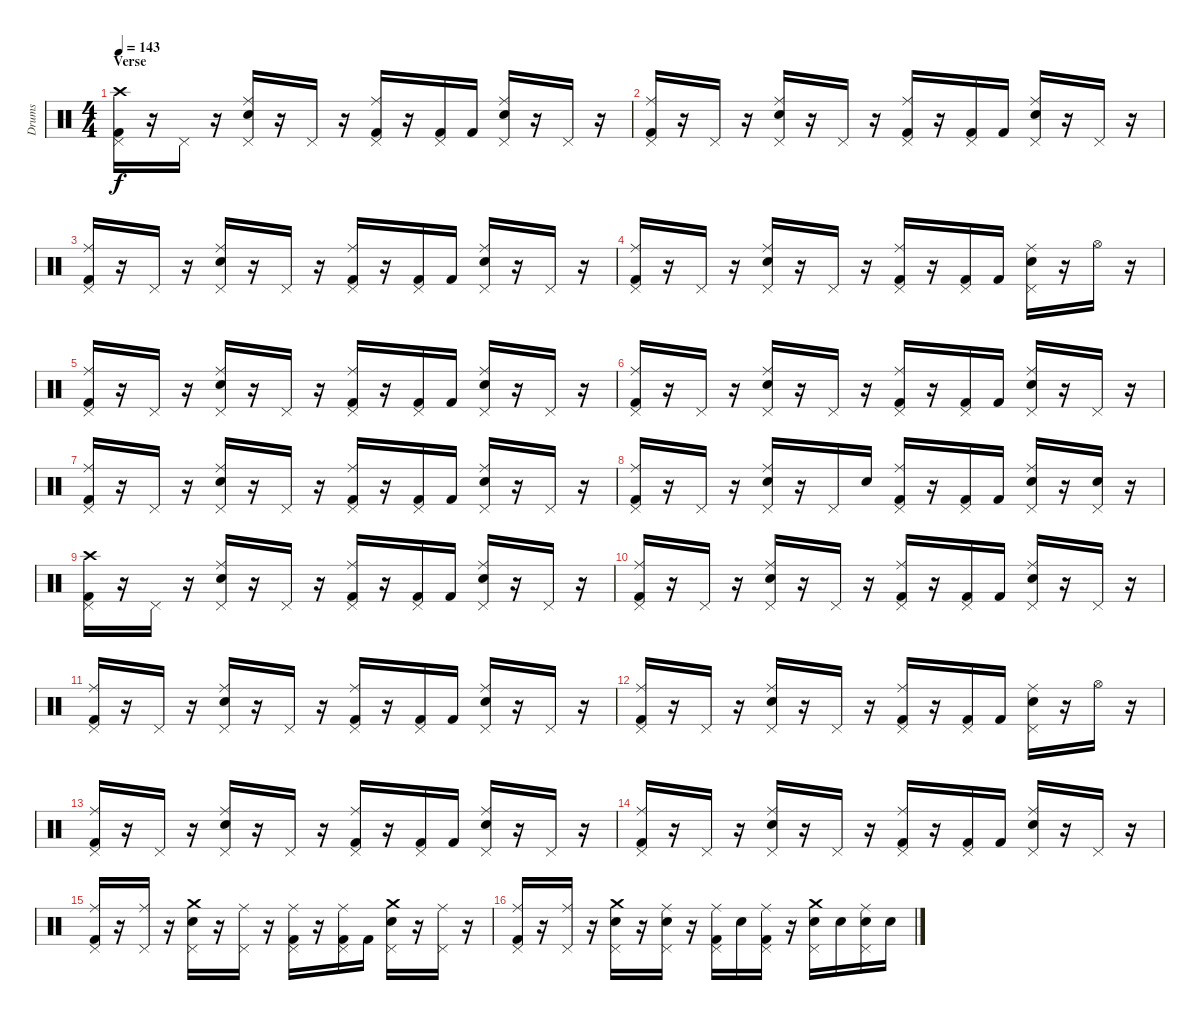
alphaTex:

\track ("Drums" "Drums") {instrument percussion}
\staff {score}
\articulation defaults
\ts (4 4)
\section ("" "Verse")
\tempo 143
\clef neutral
\ks c
("Crash high (hit)" "Kick (hit) 2" "Pedal Hi-Hat (hit)").16{dy f} r.16 "Pedal Hi-Hat (hit)".16 r.16 ("Ride (middle)" "Snare (hit) 2" "Pedal Hi-Hat (hit)").16 r.16 "Pedal Hi-Hat (hit)".16 r.16 ("Ride (middle)" "Kick (hit) 2" "Pedal Hi-Hat (hit)").16 r.16 ("Kick (hit) 2" "Pedal Hi-Hat (hit)").16 "Kick (hit) 2".16 ("Ride (middle)" "Snare (hit) 2" "Pedal Hi-Hat (hit)").16 r.16 "Pedal Hi-Hat (hit)".16 r.16 |
("Ride (middle)" "Kick (hit) 2" "Pedal Hi-Hat (hit)").16 r.16 "Pedal Hi-Hat (hit)".16 r.16 ("Ride (middle)" "Snare (hit) 2" "Pedal Hi-Hat (hit)").16 r.16 "Pedal Hi-Hat (hit)".16 r.16 ("Ride (middle)" "Kick (hit) 2" "Pedal Hi-Hat (hit)").16 r.16 ("Kick (hit) 2" "Pedal Hi-Hat (hit)").16 "Kick (hit) 2".16 ("Ride (middle)" "Snare (hit) 2" "Pedal Hi-Hat (hit)").16 r.16 "Pedal Hi-Hat (hit)".16 r.16 |
("Ride (middle)" "Kick (hit) 2" "Pedal Hi-Hat (hit)").16 r.16 "Pedal Hi-Hat (hit)".16 r.16 ("Ride (middle)" "Snare (hit) 2" "Pedal Hi-Hat (hit)").16 r.16 "Pedal Hi-Hat (hit)".16 r.16 ("Ride (middle)" "Kick (hit) 2" "Pedal Hi-Hat (hit)").16 r.16 ("Kick (hit) 2" "Pedal Hi-Hat (hit)").16 "Kick (hit) 2".16 ("Ride (middle)" "Snare (hit) 2" "Pedal Hi-Hat (hit)").16 r.16 "Pedal Hi-Hat (hit)".16 r.16 |
("Ride (middle)" "Kick (hit) 2" "Pedal Hi-Hat (hit)").16 r.16 "Pedal Hi-Hat (hit)".16 r.16 ("Ride (middle)" "Snare (hit) 2" "Pedal Hi-Hat (hit)").16 r.16 "Pedal Hi-Hat (hit)".16 r.16 ("Ride (middle)" "Kick (hit) 2" "Pedal Hi-Hat (hit)").16 r.16 ("Kick (hit) 2" "Pedal Hi-Hat (hit)").16 "Kick (hit) 2".16 ("Ride (middle)" "Snare (hit) 2" "Pedal Hi-Hat (hit)").16 r.16 "Hi-Hat (open)".16 r.16 |
("Ride (middle)" "Kick (hit) 2" "Pedal Hi-Hat (hit)").16 r.16 "Pedal Hi-Hat (hit)".16 r.16 ("Ride (middle)" "Snare (hit) 2" "Pedal Hi-Hat (hit)").16 r.16 "Pedal Hi-Hat (hit)".16 r.16 ("Ride (middle)" "Kick (hit) 2" "Pedal Hi-Hat (hit)").16 r.16 ("Kick (hit) 2" "Pedal Hi-Hat (hit)").16 "Kick (hit) 2".16 ("Ride (middle)" "Snare (hit) 2" "Pedal Hi-Hat (hit)").16 r.16 "Pedal Hi-Hat (hit)".16 r.16 |
("Ride (middle)" "Kick (hit) 2" "Pedal Hi-Hat (hit)").16 r.16 "Pedal Hi-Hat (hit)".16 r.16 ("Ride (middle)" "Snare (hit) 2" "Pedal Hi-Hat (hit)").16 r.16 "Pedal Hi-Hat (hit)".16 r.16 ("Ride (middle)" "Kick (hit) 2" "Pedal Hi-Hat (hit)").16 r.16 ("Kick (hit) 2" "Pedal Hi-Hat (hit)").16 "Kick (hit) 2".16 ("Ride (middle)" "Snare (hit) 2" "Pedal Hi-Hat (hit)").16 r.16 "Pedal Hi-Hat (hit)".16 r.16 |
("Ride (middle)" "Kick (hit) 2" "Pedal Hi-Hat (hit)").16 r.16 "Pedal Hi-Hat (hit)".16 r.16 ("Ride (middle)" "Snare (hit) 2" "Pedal Hi-Hat (hit)").16 r.16 "Pedal Hi-Hat (hit)".16 r.16 ("Ride (middle)" "Kick (hit) 2" "Pedal Hi-Hat (hit)").16 r.16 ("Kick (hit) 2" "Pedal Hi-Hat (hit)").16 "Kick (hit) 2".16 ("Ride (middle)" "Snare (hit) 2" "Pedal Hi-Hat (hit)").16 r.16 "Pedal Hi-Hat (hit)".16 r.16 |
("Ride (middle)" "Kick (hit) 2" "Pedal Hi-Hat (hit)").16 r.16 "Pedal Hi-Hat (hit)".16 r.16 ("Ride (middle)" "Snare (hit) 2" "Pedal Hi-Hat (hit)").16 r.16 "Pedal Hi-Hat (hit)".16 "Snare (hit) 2".16 ("Ride (middle)" "Kick (hit) 2" "Pedal Hi-Hat (hit)").16 r.16 ("Kick (hit) 2" "Pedal Hi-Hat (hit)").16 "Kick (hit) 2".16 ("Ride (middle)" "Snare (hit) 2" "Pedal Hi-Hat (hit)").16 r.16 ("Snare (hit) 2" "Pedal Hi-Hat (hit)").16 r.16 |
("Crash high (hit)" "Kick (hit) 2" "Pedal Hi-Hat (hit)").16 r.16 "Pedal Hi-Hat (hit)".16 r.16 ("Ride (middle)" "Snare (hit) 2" "Pedal Hi-Hat (hit)").16 r.16 "Pedal Hi-Hat (hit)".16 r.16 ("Ride (middle)" "Kick (hit) 2" "Pedal Hi-Hat (hit)").16 r.16 ("Kick (hit) 2" "Pedal Hi-Hat (hit)").16 "Kick (hit) 2".16 ("Ride (middle)" "Snare (hit) 2" "Pedal Hi-Hat (hit)").16 r.16 "Pedal Hi-Hat (hit)".16 r.16 |
("Ride (middle)" "Kick (hit) 2" "Pedal Hi-Hat (hit)").16 r.16 "Pedal Hi-Hat (hit)".16 r.16 ("Ride (middle)" "Snare (hit) 2" "Pedal Hi-Hat (hit)").16 r.16 "Pedal Hi-Hat (hit)".16 r.16 ("Ride (middle)" "Kick (hit) 2" "Pedal Hi-Hat (hit)").16 r.16 ("Kick (hit) 2" "Pedal Hi-Hat (hit)").16 "Kick (hit) 2".16 ("Ride (middle)" "Snare (hit) 2" "Pedal Hi-Hat (hit)").16 r.16 "Pedal Hi-Hat (hit)".16 r.16 |
("Ride (middle)" "Kick (hit) 2" "Pedal Hi-Hat (hit)").16 r.16 "Pedal Hi-Hat (hit)".16 r.16 ("Ride (middle)" "Snare (hit) 2" "Pedal Hi-Hat (hit)").16 r.16 "Pedal Hi-Hat (hit)".16 r.16 ("Ride (middle)" "Kick (hit) 2" "Pedal Hi-Hat (hit)").16 r.16 ("Kick (hit) 2" "Pedal Hi-Hat (hit)").16 "Kick (hit) 2".16 ("Ride (middle)" "Snare (hit) 2" "Pedal Hi-Hat (hit)").16 r.16 "Pedal Hi-Hat (hit)".16 r.16 |
("Ride (middle)" "Kick (hit) 2" "Pedal Hi-Hat (hit)").16 r.16 "Pedal Hi-Hat (hit)".16 r.16 ("Ride (middle)" "Snare (hit) 2" "Pedal Hi-Hat (hit)").16 r.16 "Pedal Hi-Hat (hit)".16 r.16 ("Ride (middle)" "Kick (hit) 2" "Pedal Hi-Hat (hit)").16 r.16 ("Kick (hit) 2" "Pedal Hi-Hat (hit)").16 "Kick (hit) 2".16 ("Ride (middle)" "Snare (hit) 2" "Pedal Hi-Hat (hit)").16 r.16 "Hi-Hat (open)".16 r.16 |
("Ride (middle)" "Kick (hit) 2" "Pedal Hi-Hat (hit)").16 r.16 "Pedal Hi-Hat (hit)".16 r.16 ("Ride (middle)" "Snare (hit) 2" "Pedal Hi-Hat (hit)").16 r.16 "Pedal Hi-Hat (hit)".16 r.16 ("Ride (middle)" "Kick (hit) 2" "Pedal Hi-Hat (hit)").16 r.16 ("Kick (hit) 2" "Pedal Hi-Hat (hit)").16 "Kick (hit) 2".16 ("Ride (middle)" "Snare (hit) 2" "Pedal Hi-Hat (hit)").16 r.16 "Pedal Hi-Hat (hit)".16 r.16 |
("Ride (middle)" "Kick (hit) 2" "Pedal Hi-Hat (hit)").16 r.16 "Pedal Hi-Hat (hit)".16 r.16 ("Ride (middle)" "Snare (hit) 2" "Pedal Hi-Hat (hit)").16 r.16 "Pedal Hi-Hat (hit)".16 r.16 ("Ride (middle)" "Kick (hit) 2" "Pedal Hi-Hat (hit)").16 r.16 ("Kick (hit) 2" "Pedal Hi-Hat (hit)").16 "Kick (hit) 2".16 ("Ride (middle)" "Snare (hit) 2" "Pedal Hi-Hat (hit)").16 r.16 "Pedal Hi-Hat (hit)".16 r.16 |
("Ride (middle)" "Kick (hit) 2" "Pedal Hi-Hat (hit)").16 r.16 ("Ride (middle)" "Pedal Hi-Hat (hit)").16 r.16 ("Crash medium (hit)" "Snare (hit) 2" "Pedal Hi-Hat (hit)").16 r.16 ("Ride (middle)" "Pedal Hi-Hat (hit)").16 r.16 ("Ride (middle)" "Kick (hit) 2" "Pedal Hi-Hat (hit)").16 r.16 ("Ride (middle)" "Kick (hit) 2" "Pedal Hi-Hat (hit)").16 "Kick (hit) 2".16 ("Crash medium (hit)" "Snare (hit) 2" "Pedal Hi-Hat (hit)").16 r.16 ("Ride (middle)" "Pedal Hi-Hat (hit)").16 r.16 |
("Ride (middle)" "Kick (hit) 2" "Pedal Hi-Hat (hit)").16 r.16 ("Ride (middle)" "Pedal Hi-Hat (hit)").16 r.16 ("Crash medium (hit)" "Snare (hit) 2" "Pedal Hi-Hat (hit)").16 r.16 ("Ride (middle)" "Snare (hit) 2" "Pedal Hi-Hat (hit)").16 r.16 ("Ride (middle)" "Kick (hit) 2" "Pedal Hi-Hat (hit)").16 "Snare (hit) 2".16 ("Ride (middle)" "Kick (hit) 2" "Pedal Hi-Hat (hit)").16 r.16 ("Crash medium (hit)" "Snare (hit) 2" "Pedal Hi-Hat (hit)").16 "Snare (hit) 2".16 ("Ride (middle)" "Snare (hit) 2" "Pedal Hi-Hat (hit)").16 "Snare (hit) 2".16
